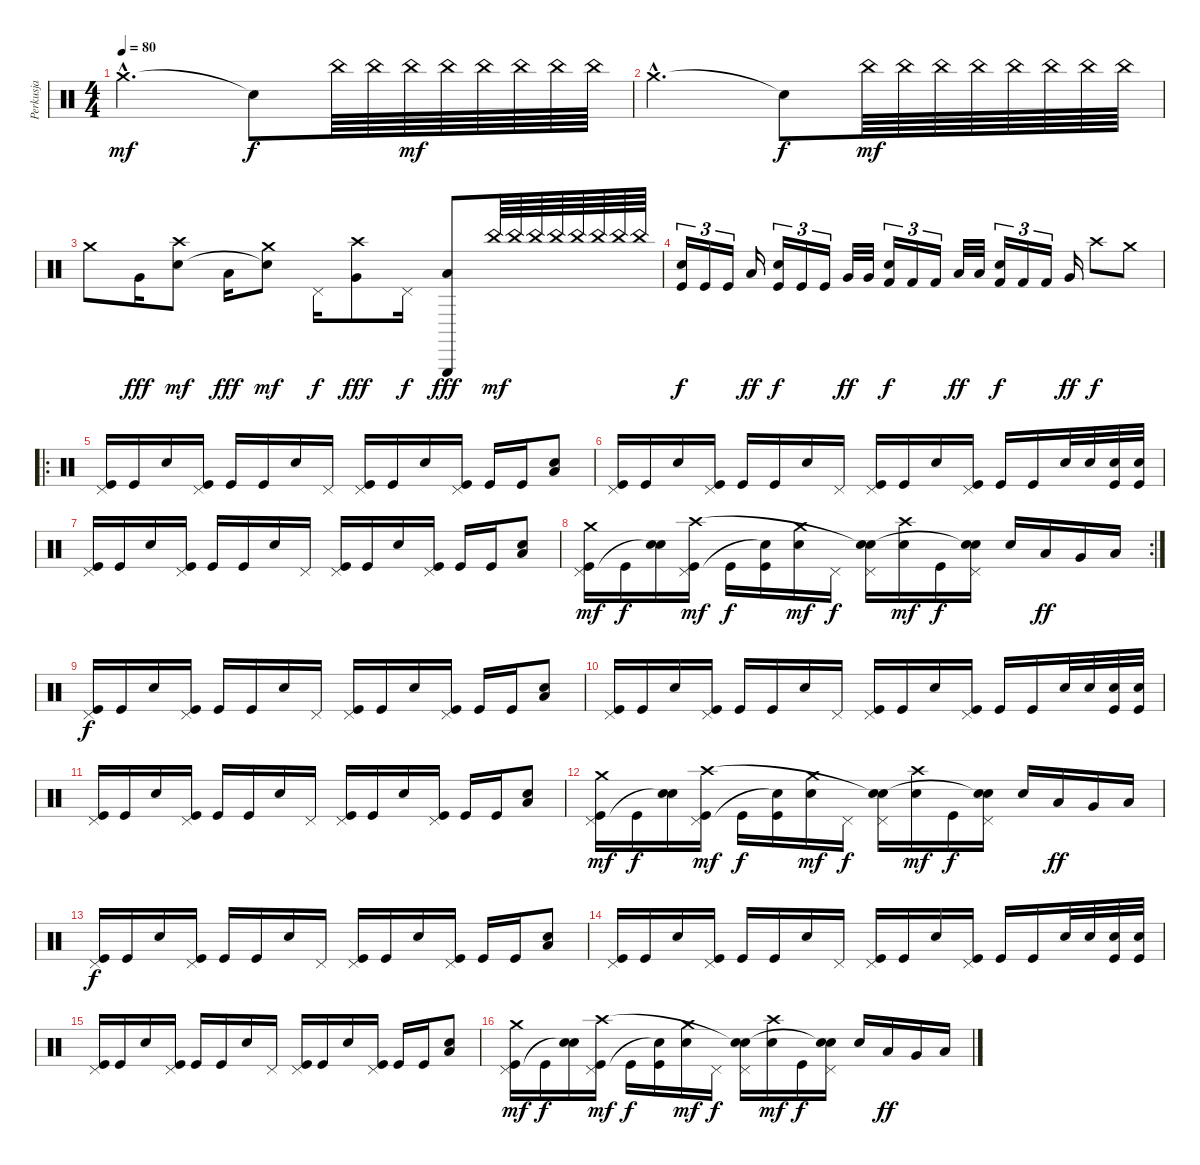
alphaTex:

\track ("Perkusja" "Perkusja") {instrument percussion}
\staff {score}
\articulation defaults
\ts (4 4)
\tempo 80
\clef neutral
\ks c "Crash medium (hit)"{hac}.2{d dy mf} "Snare (hit)"{t}.8{dy f} "China (hit)".64 "China (hit)".64 "China (hit)".64{dy mf} "China (hit)".64 "China (hit)".64 "China (hit)".64 "China (hit)".64 "China (hit)".64
|
"Crash medium (hit)"{hac}.2{d} "Snare (hit)"{t}.8{dy f} "China (hit)".64{dy mf} "China (hit)".64 "China (hit)".64 "China (hit)".64 "China (hit)".64 "China (hit)".64 "China (hit)".64 "China (hit)".64 |
"Crash medium (hit)".8 "Very Low Tom (hit)".16{dy fff} ("Crash high (hit)" "Snare (hit)"{t}).8{dy mf} "Low Floor Tom (hit)".16{dy fff} ("Crash medium (hit)" "Snare (hit)"{t}).8{dy mf} "Pedal Hi-Hat (hit)".16{dy f} ("Crash high (hit)" "Very Low Tom (hit)").8{dy fff} "Pedal Hi-Hat (hit)".16{dy f} ("Triangle (hit)" "Low Floor Tom (hit)").8{dy fff} "China (hit)".64{dy mf} "China (hit)".64 "China (hit)".64 "China (hit)".64 "China (hit)".64 "China (hit)".64 "China (hit)".64 "China (hit)".64 |
("Kick (hit)" "Snare (hit) 2").16{tu (3 2) dy f} "Kick (hit)".16{tu (3 2)} "Kick (hit)".16{tu (3 2)} "Low Tom (hit)".16{dy ff} ("Kick (hit)" "Snare (hit) 2").16{tu (3 2) dy f} "Kick (hit)".16{tu (3 2)} "Kick (hit)".16{tu (3 2)} "Very Low Tom (hit)".32{dy ff} "Very Low Tom (hit)".32 ("Kick (hit) 2" "Electric Snare (hit)").16{tu (3 2) dy f} "Kick (hit) 2".16{tu (3 2)} "Kick (hit) 2".16{tu (3 2)} "Low Tom (hit)".32{dy ff} "Low Tom (hit)".32 ("Kick (hit) 2" "Electric Snare (hit)").16{tu (3 2) dy f} "Kick (hit) 2".16{tu (3 2)} "Kick (hit) 2".16{tu (3 2)} "Very Low Tom (hit)".16{dy ff} "Crash high (hit)".8{dy f} "Crash medium (hit)".8 |
\ro
("Kick (hit)" "Pedal Hi-Hat (hit)").16 "Kick (hit)".16 "Electric Snare (hit)".16 ("Kick (hit)" "Pedal Hi-Hat (hit)").16 "Kick (hit)".16 "Kick (hit)".16 "Electric Snare (hit)".16 "Pedal Hi-Hat (hit)".16 ("Kick (hit)" "Pedal Hi-Hat (hit)").16 "Kick (hit)".16 "Electric Snare (hit)".16 ("Kick (hit)" "Pedal Hi-Hat (hit)").16 "Kick (hit)".16 "Kick (hit)".16 ("Electric Snare (hit)" "Low Tom (hit)").8 |
("Kick (hit)" "Pedal Hi-Hat (hit)").16 "Kick (hit)".16 "Electric Snare (hit)".16 ("Kick (hit)" "Pedal Hi-Hat (hit)").16 "Kick (hit)".16 "Kick (hit)".16 "Electric Snare (hit)".16 "Pedal Hi-Hat (hit)".16 ("Kick (hit)" "Pedal Hi-Hat (hit)").16 "Kick (hit)".16 "Electric Snare (hit)".16 ("Kick (hit)" "Pedal Hi-Hat (hit)").16 "Kick (hit)".16 "Kick (hit)".16 "Electric Snare (hit)".32 "Electric Snare (hit)".32 ("Electric Snare (hit)" "Kick (hit)").32 ("Electric Snare (hit)" "Kick (hit)").32 |
("Kick (hit)" "Pedal Hi-Hat (hit)").16 "Kick (hit)".16 "Electric Snare (hit)".16 ("Kick (hit)" "Pedal Hi-Hat (hit)").16 "Kick (hit)".16 "Kick (hit)".16 "Electric Snare (hit)".16 "Pedal Hi-Hat (hit)".16 ("Kick (hit)" "Pedal Hi-Hat (hit)").16 "Kick (hit)".16 "Electric Snare (hit)".16 ("Kick (hit)" "Pedal Hi-Hat (hit)").16 "Kick (hit)".16 "Kick (hit)".16 ("Electric Snare (hit)" "Low Tom (hit)").8 |
\rc 2
("Kick (hit)" "Pedal Hi-Hat (hit)" "Crash medium (hit)").16{dy mf} "Kick (hit)".16{dy f} ("Electric Snare (hit)" "Snare (hit)"{t}).16 ("Kick (hit)" "Pedal Hi-Hat (hit)" "Crash high (hit)").16{dy mf} "Kick (hit)".16{dy f} ("Kick (hit)" "Snare (hit)"{t}).16 ("Electric Snare (hit)" "Crash medium (hit)").16{dy mf} "Pedal Hi-Hat (hit)".16{dy f} ("Electric Snare (hit)" "Pedal Hi-Hat (hit)" "Snare (hit)"{t}).16 ("Snare (hit) 2" "Crash high (hit)").16{dy mf} "Kick (hit)".16{dy f} ("Electric Snare (hit)" "Pedal Hi-Hat (hit)" "Snare (hit)"{t}).16 "Snare (hit) 2".16 "Low Tom (hit)".16{dy ff} "Very Low Tom (hit)".16 "Low Floor Tom (hit)".16 |
("Kick (hit)" "Pedal Hi-Hat (hit)").16{dy f} "Kick (hit)".16 "Electric Snare (hit)".16 ("Kick (hit)" "Pedal Hi-Hat (hit)").16 "Kick (hit)".16 "Kick (hit)".16 "Electric Snare (hit)".16 "Pedal Hi-Hat (hit)".16 ("Kick (hit)" "Pedal Hi-Hat (hit)").16 "Kick (hit)".16 "Electric Snare (hit)".16 ("Kick (hit)" "Pedal Hi-Hat (hit)").16 "Kick (hit)".16 "Kick (hit)".16 ("Electric Snare (hit)" "Low Tom (hit)").8 |
("Kick (hit)" "Pedal Hi-Hat (hit)").16 "Kick (hit)".16 "Electric Snare (hit)".16 ("Kick (hit)" "Pedal Hi-Hat (hit)").16 "Kick (hit)".16 "Kick (hit)".16 "Electric Snare (hit)".16 "Pedal Hi-Hat (hit)".16 ("Kick (hit)" "Pedal Hi-Hat (hit)").16 "Kick (hit)".16 "Electric Snare (hit)".16 ("Kick (hit)" "Pedal Hi-Hat (hit)").16 "Kick (hit)".16 "Kick (hit)".16 "Electric Snare (hit)".32 "Electric Snare (hit)".32 ("Electric Snare (hit)" "Kick (hit)").32 ("Electric Snare (hit)" "Kick (hit)").32 |
("Kick (hit)" "Pedal Hi-Hat (hit)").16 "Kick (hit)".16 "Electric Snare (hit)".16 ("Kick (hit)" "Pedal Hi-Hat (hit)").16 "Kick (hit)".16 "Kick (hit)".16 "Electric Snare (hit)".16 "Pedal Hi-Hat (hit)".16 ("Kick (hit)" "Pedal Hi-Hat (hit)").16 "Kick (hit)".16 "Electric Snare (hit)".16 ("Kick (hit)" "Pedal Hi-Hat (hit)").16 "Kick (hit)".16 "Kick (hit)".16 ("Electric Snare (hit)" "Low Tom (hit)").8 |
("Kick (hit)" "Pedal Hi-Hat (hit)" "Crash medium (hit)").16{dy mf} "Kick (hit)".16{dy f} ("Electric Snare (hit)" "Snare (hit)"{t}).16 ("Kick (hit)" "Pedal Hi-Hat (hit)" "Crash high (hit)").16{dy mf} "Kick (hit)".16{dy f} ("Kick (hit)" "Snare (hit)"{t}).16 ("Electric Snare (hit)" "Crash medium (hit)").16{dy mf} "Pedal Hi-Hat (hit)".16{dy f} ("Electric Snare (hit)" "Pedal Hi-Hat (hit)" "Snare (hit)"{t}).16 ("Snare (hit) 2" "Crash high (hit)").16{dy mf} "Kick (hit)".16{dy f} ("Electric Snare (hit)" "Pedal Hi-Hat (hit)" "Snare (hit)"{t}).16 "Snare (hit) 2".16 "Low Tom (hit)".16{dy ff} "Very Low Tom (hit)".16 "Low Floor Tom (hit)".16 |
("Kick (hit)" "Pedal Hi-Hat (hit)").16{dy f} "Kick (hit)".16 "Electric Snare (hit)".16 ("Kick (hit)" "Pedal Hi-Hat (hit)").16 "Kick (hit)".16 "Kick (hit)".16 "Electric Snare (hit)".16 "Pedal Hi-Hat (hit)".16 ("Kick (hit)" "Pedal Hi-Hat (hit)").16 "Kick (hit)".16 "Electric Snare (hit)".16 ("Kick (hit)" "Pedal Hi-Hat (hit)").16 "Kick (hit)".16 "Kick (hit)".16 ("Electric Snare (hit)" "Low Tom (hit)").8 |
("Kick (hit)" "Pedal Hi-Hat (hit)").16 "Kick (hit)".16 "Electric Snare (hit)".16 ("Kick (hit)" "Pedal Hi-Hat (hit)").16 "Kick (hit)".16 "Kick (hit)".16 "Electric Snare (hit)".16 "Pedal Hi-Hat (hit)".16 ("Kick (hit)" "Pedal Hi-Hat (hit)").16 "Kick (hit)".16 "Electric Snare (hit)".16 ("Kick (hit)" "Pedal Hi-Hat (hit)").16 "Kick (hit)".16 "Kick (hit)".16 "Electric Snare (hit)".32 "Electric Snare (hit)".32 ("Electric Snare (hit)" "Kick (hit)").32 ("Electric Snare (hit)" "Kick (hit)").32 |
("Kick (hit)" "Pedal Hi-Hat (hit)").16 "Kick (hit)".16 "Electric Snare (hit)".16 ("Kick (hit)" "Pedal Hi-Hat (hit)").16 "Kick (hit)".16 "Kick (hit)".16 "Electric Snare (hit)".16 "Pedal Hi-Hat (hit)".16 ("Kick (hit)" "Pedal Hi-Hat (hit)").16 "Kick (hit)".16 "Electric Snare (hit)".16 ("Kick (hit)" "Pedal Hi-Hat (hit)").16 "Kick (hit)".16 "Kick (hit)".16 ("Electric Snare (hit)" "Low Tom (hit)").8 |
("Kick (hit)" "Pedal Hi-Hat (hit)" "Crash medium (hit)").16{dy mf} "Kick (hit)".16{dy f} ("Electric Snare (hit)" "Snare (hit)"{t}).16 ("Kick (hit)" "Pedal Hi-Hat (hit)" "Crash high (hit)").16{dy mf} "Kick (hit)".16{dy f} ("Kick (hit)" "Snare (hit)"{t}).16 ("Electric Snare (hit)" "Crash medium (hit)").16{dy mf} "Pedal Hi-Hat (hit)".16{dy f} ("Electric Snare (hit)" "Pedal Hi-Hat (hit)" "Snare (hit)"{t}).16 ("Snare (hit) 2" "Crash high (hit)").16{dy mf} "Kick (hit)".16{dy f} ("Electric Snare (hit)" "Pedal Hi-Hat (hit)" "Snare (hit)"{t}).16 "Snare (hit) 2".16 "Low Tom (hit)".16{dy ff} "Very Low Tom (hit)".16 "Low Floor Tom (hit)".16
